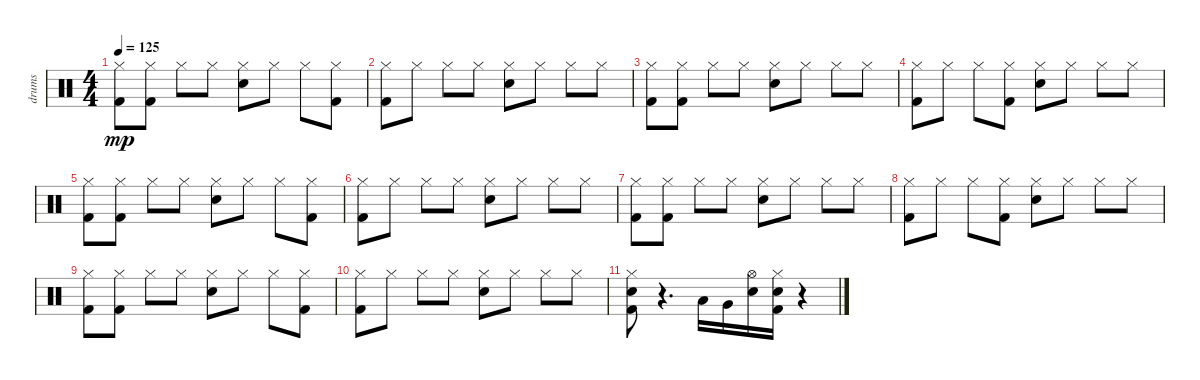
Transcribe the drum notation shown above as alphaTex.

\track ("drums" "drums") {instrument percussion}
\staff {score}
\articulation defaults
\ts (4 4)
\tempo 125
\clef neutral
\ks c
("Hi-Hat (closed)" "Kick (hit) 2").8{dy mp} ("Hi-Hat (closed)" "Kick (hit) 2").8 "Hi-Hat (closed)".8 "Hi-Hat (closed)".8 ("Hi-Hat (closed)" "Snare (hit) 2").8 "Hi-Hat (closed)".8 "Hi-Hat (closed)".8 ("Hi-Hat (closed)" "Kick (hit) 2").8 |
("Hi-Hat (closed)" "Kick (hit) 2").8 "Hi-Hat (closed)".8 "Hi-Hat (closed)".8 "Hi-Hat (closed)".8 ("Hi-Hat (closed)" "Snare (hit) 2").8 "Hi-Hat (closed)".8 "Hi-Hat (closed)".8 "Hi-Hat (closed)".8 |
("Hi-Hat (closed)" "Kick (hit) 2").8 ("Hi-Hat (closed)" "Kick (hit) 2").8 "Hi-Hat (closed)".8 "Hi-Hat (closed)".8 ("Hi-Hat (closed)" "Snare (hit) 2").8 "Hi-Hat (closed)".8 "Hi-Hat (closed)".8 "Hi-Hat (closed)".8 |
("Hi-Hat (closed)" "Kick (hit) 2").8 "Hi-Hat (closed)".8 "Hi-Hat (closed)".8 ("Hi-Hat (closed)" "Kick (hit) 2").8 ("Hi-Hat (closed)" "Snare (hit) 2").8 "Hi-Hat (closed)".8 "Hi-Hat (closed)".8 "Hi-Hat (closed)".8 |
("Hi-Hat (closed)" "Kick (hit) 2").8 ("Hi-Hat (closed)" "Kick (hit) 2").8 "Hi-Hat (closed)".8 "Hi-Hat (closed)".8 ("Hi-Hat (closed)" "Snare (hit) 2").8 "Hi-Hat (closed)".8 "Hi-Hat (closed)".8 ("Hi-Hat (closed)" "Kick (hit) 2").8 |
("Hi-Hat (closed)" "Kick (hit) 2").8 "Hi-Hat (closed)".8 "Hi-Hat (closed)".8 "Hi-Hat (closed)".8 ("Hi-Hat (closed)" "Snare (hit) 2").8 "Hi-Hat (closed)".8 "Hi-Hat (closed)".8 "Hi-Hat (closed)".8 |
("Hi-Hat (closed)" "Kick (hit) 2").8 ("Hi-Hat (closed)" "Kick (hit) 2").8 "Hi-Hat (closed)".8 "Hi-Hat (closed)".8 ("Hi-Hat (closed)" "Snare (hit) 2").8 "Hi-Hat (closed)".8 "Hi-Hat (closed)".8 "Hi-Hat (closed)".8 |
("Hi-Hat (closed)" "Kick (hit) 2").8 "Hi-Hat (closed)".8 "Hi-Hat (closed)".8 ("Hi-Hat (closed)" "Kick (hit) 2").8 ("Hi-Hat (closed)" "Snare (hit) 2").8 "Hi-Hat (closed)".8 "Hi-Hat (closed)".8 "Hi-Hat (closed)".8 |
("Hi-Hat (closed)" "Kick (hit) 2").8{volume 15} ("Hi-Hat (closed)" "Kick (hit) 2").8{volume 14} "Hi-Hat (closed)".8{volume 13} "Hi-Hat (closed)".8{volume 12} ("Hi-Hat (closed)" "Snare (hit) 2").8{volume 11} "Hi-Hat (closed)".8{volume 10} "Hi-Hat (closed)".8{volume 9} ("Hi-Hat (closed)" "Kick (hit) 2").8{volume 8} |
("Hi-Hat (closed)" "Kick (hit) 2").8{volume 8} "Hi-Hat (closed)".8{volume 7} "Hi-Hat (closed)".8{volume 6} "Hi-Hat (closed)".8{volume 5} ("Hi-Hat (closed)" "Snare (hit) 2").8{volume 4} "Hi-Hat (closed)".8{volume 3} "Hi-Hat (closed)".8{volume 2} "Hi-Hat (closed)".8{volume 1} |
("Hi-Hat (closed)" "Kick (hit) 2" "Snare (hit) 2").8{volume 0} r.4{d} "Low Tom (hit)".16 "Very Low Tom (hit)".16 ("Hi-Hat (open)" "Snare (hit) 2").16 ("Hi-Hat (closed)" "Kick (hit) 2" "Snare (hit) 2").16 r.4
